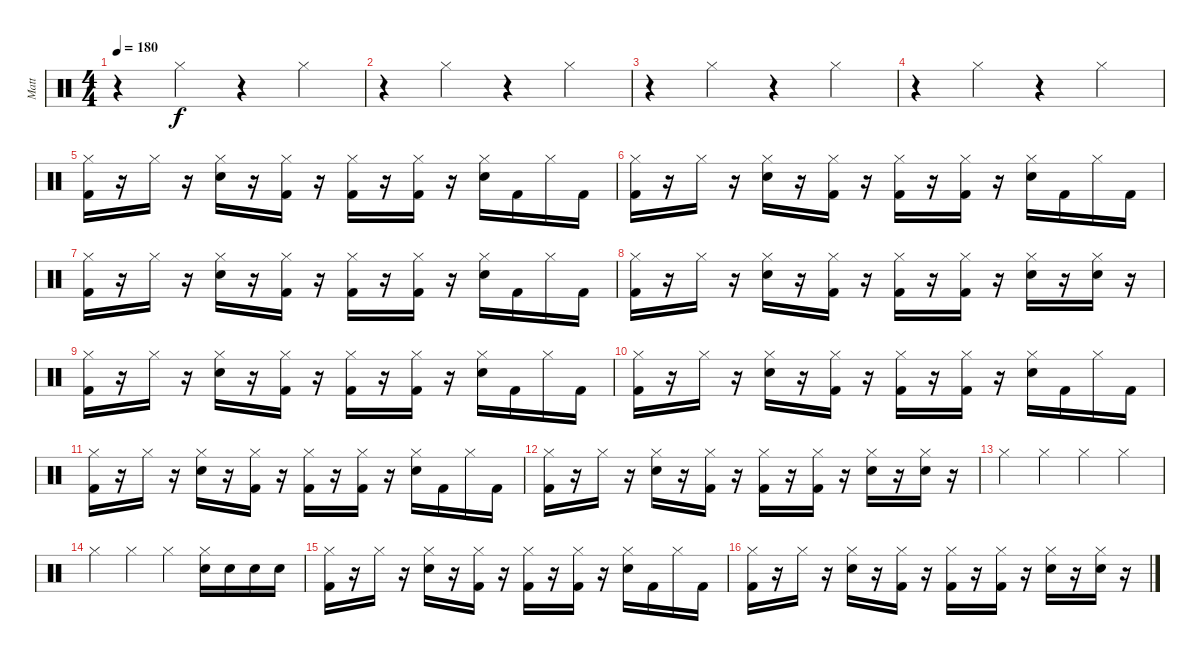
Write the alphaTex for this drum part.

\track ("Matt" "Matt") {instrument percussion}
\staff {score}
\articulation defaults
\ts (4 4)
\tempo 180
\clef neutral
\ks c
r.4{dy f} "Hi-Hat (closed)".4 r.4 "Hi-Hat (closed)".4 |
r.4 "Hi-Hat (closed)".4 r.4 "Hi-Hat (closed)".4 |
r.4 "Hi-Hat (closed)".4 r.4 "Hi-Hat (closed)".4 |
r.4 "Hi-Hat (closed)".4 r.4 "Hi-Hat (closed)".4 |
("Hi-Hat (closed)" "Kick (hit) 2").16 r.16 "Hi-Hat (closed)".16 r.16 ("Hi-Hat (closed)" "Snare (hit) 2").16 r.16 ("Hi-Hat (closed)" "Kick (hit) 2").16 r.16 ("Hi-Hat (closed)" "Kick (hit) 2").16 r.16 ("Hi-Hat (closed)" "Kick (hit) 2").16 r.16 ("Hi-Hat (closed)" "Snare (hit) 2").16 "Kick (hit) 2".16 "Hi-Hat (closed)".16 "Kick (hit) 2".16 |
("Hi-Hat (closed)" "Kick (hit) 2").16 r.16 "Hi-Hat (closed)".16 r.16 ("Hi-Hat (closed)" "Snare (hit) 2").16 r.16 ("Hi-Hat (closed)" "Kick (hit) 2").16 r.16 ("Hi-Hat (closed)" "Kick (hit) 2").16 r.16 ("Hi-Hat (closed)" "Kick (hit) 2").16 r.16 ("Hi-Hat (closed)" "Snare (hit) 2").16 "Kick (hit) 2".16 "Hi-Hat (closed)".16 "Kick (hit) 2".16 |
("Hi-Hat (closed)" "Kick (hit) 2").16 r.16 "Hi-Hat (closed)".16 r.16 ("Hi-Hat (closed)" "Snare (hit) 2").16 r.16 ("Hi-Hat (closed)" "Kick (hit) 2").16 r.16 ("Hi-Hat (closed)" "Kick (hit) 2").16 r.16 ("Hi-Hat (closed)" "Kick (hit) 2").16 r.16 ("Hi-Hat (closed)" "Snare (hit) 2").16 "Kick (hit) 2".16 "Hi-Hat (closed)".16 "Kick (hit) 2".16 |
("Hi-Hat (closed)" "Kick (hit) 2").16 r.16 "Hi-Hat (closed)".16 r.16 ("Hi-Hat (closed)" "Snare (hit) 2").16 r.16 ("Hi-Hat (closed)" "Kick (hit) 2").16 r.16 ("Hi-Hat (closed)" "Kick (hit) 2").16 r.16 ("Hi-Hat (closed)" "Kick (hit) 2").16 r.16 ("Hi-Hat (closed)" "Snare (hit) 2").16 r.16 ("Hi-Hat (closed)" "Snare (hit) 2").16 r.16 |
("Hi-Hat (closed)" "Kick (hit) 2").16 r.16 "Hi-Hat (closed)".16 r.16 ("Hi-Hat (closed)" "Snare (hit) 2").16 r.16 ("Hi-Hat (closed)" "Kick (hit) 2").16 r.16 ("Hi-Hat (closed)" "Kick (hit) 2").16 r.16 ("Hi-Hat (closed)" "Kick (hit) 2").16 r.16 ("Hi-Hat (closed)" "Snare (hit) 2").16 "Kick (hit) 2".16 "Hi-Hat (closed)".16 "Kick (hit) 2".16 |
("Hi-Hat (closed)" "Kick (hit) 2").16 r.16 "Hi-Hat (closed)".16 r.16 ("Hi-Hat (closed)" "Snare (hit) 2").16 r.16 ("Hi-Hat (closed)" "Kick (hit) 2").16 r.16 ("Hi-Hat (closed)" "Kick (hit) 2").16 r.16 ("Hi-Hat (closed)" "Kick (hit) 2").16 r.16 ("Hi-Hat (closed)" "Snare (hit) 2").16 "Kick (hit) 2".16 "Hi-Hat (closed)".16 "Kick (hit) 2".16 |
("Hi-Hat (closed)" "Kick (hit) 2").16 r.16 "Hi-Hat (closed)".16 r.16 ("Hi-Hat (closed)" "Snare (hit) 2").16 r.16 ("Hi-Hat (closed)" "Kick (hit) 2").16 r.16 ("Hi-Hat (closed)" "Kick (hit) 2").16 r.16 ("Hi-Hat (closed)" "Kick (hit) 2").16 r.16 ("Hi-Hat (closed)" "Snare (hit) 2").16 "Kick (hit) 2".16 "Hi-Hat (closed)".16 "Kick (hit) 2".16 |
("Hi-Hat (closed)" "Kick (hit) 2").16 r.16 "Hi-Hat (closed)".16 r.16 ("Hi-Hat (closed)" "Snare (hit) 2").16 r.16 ("Hi-Hat (closed)" "Kick (hit) 2").16 r.16 ("Hi-Hat (closed)" "Kick (hit) 2").16 r.16 ("Hi-Hat (closed)" "Kick (hit) 2").16 r.16 ("Hi-Hat (closed)" "Snare (hit) 2").16 r.16 ("Hi-Hat (closed)" "Snare (hit) 2").16 r.16 |
"Hi-Hat (closed)".4 "Hi-Hat (closed)".4 "Hi-Hat (closed)".4 "Hi-Hat (closed)".4 |
"Hi-Hat (closed)".4 "Hi-Hat (closed)".4 "Hi-Hat (closed)".4 ("Hi-Hat (closed)" "Snare (hit) 2").16 "Snare (hit) 2".16 "Snare (hit) 2".16 "Snare (hit) 2".16 |
("Hi-Hat (closed)" "Kick (hit) 2").16 r.16 "Hi-Hat (closed)".16 r.16 ("Hi-Hat (closed)" "Snare (hit) 2").16 r.16 ("Hi-Hat (closed)" "Kick (hit) 2").16 r.16 ("Hi-Hat (closed)" "Kick (hit) 2").16 r.16 ("Hi-Hat (closed)" "Kick (hit) 2").16 r.16 ("Hi-Hat (closed)" "Snare (hit) 2").16 "Kick (hit) 2".16 "Hi-Hat (closed)".16 "Kick (hit) 2".16 |
("Hi-Hat (closed)" "Kick (hit) 2").16 r.16 "Hi-Hat (closed)".16 r.16 ("Hi-Hat (closed)" "Snare (hit) 2").16 r.16 ("Hi-Hat (closed)" "Kick (hit) 2").16 r.16 ("Hi-Hat (closed)" "Kick (hit) 2").16 r.16 ("Hi-Hat (closed)" "Kick (hit) 2").16 r.16 ("Hi-Hat (closed)" "Snare (hit) 2").16 r.16 ("Hi-Hat (closed)" "Snare (hit) 2").16 r.16
